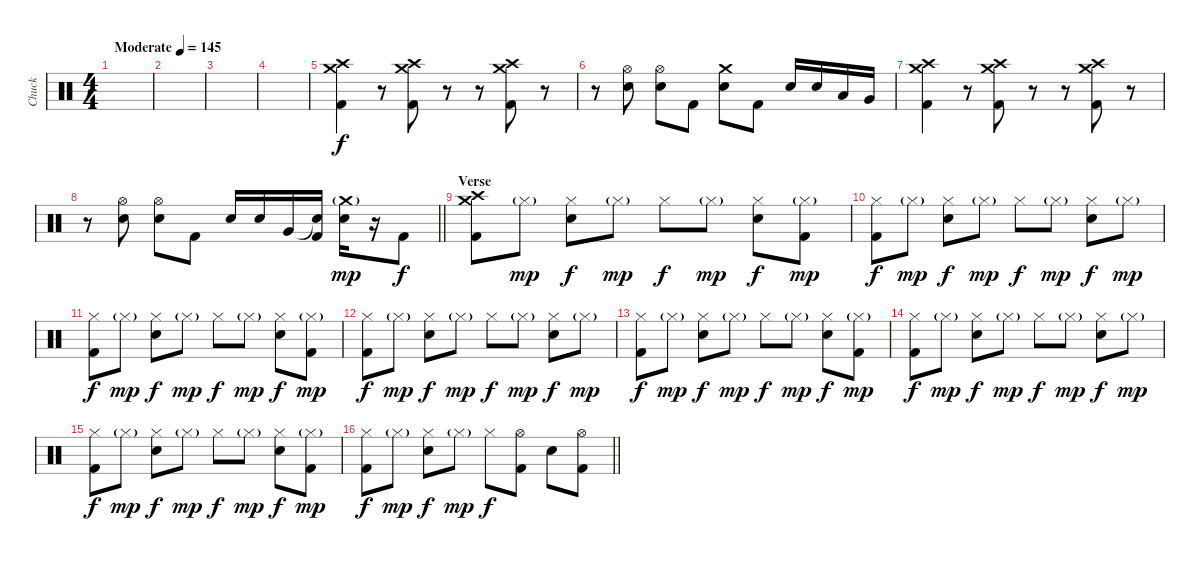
\track ("Chuck" "Chuck") {instrument percussion}
\staff {score}
\articulation defaults
\ts (4 4)
\tempo (145 "Moderate")
\clef neutral
\ks c
|
|
|
|
("Crash medium (hit)" "Crash high (hit)" "Kick (hit) 2").4 r.8 ("Crash medium (hit)" "Crash high (hit)" "Kick (hit) 2").8 r.8 r.8 ("Crash medium (hit)" "Crash high (hit)" "Kick (hit) 2").8 r.8 |
r.8 ("Hi-Hat (open)" "Snare (hit) 2").8 ("Hi-Hat (open)" "Snare (hit) 2").8 "Kick (hit) 2".8 ("Crash medium (hit)" "Snare (hit) 2").8 "Kick (hit) 2".8 "Snare (hit) 2".16 "Snare (hit) 2".16 "Low Tom (hit)".16 "Very Low Tom (hit)".16 |
("Crash medium (hit)" "Crash high (hit)" "Kick (hit) 2").4 r.8 ("Crash medium (hit)" "Crash high (hit)" "Kick (hit) 2").8 r.8 r.8 ("Crash medium (hit)" "Crash high (hit)" "Kick (hit) 2").8 r.8 |
\barLineRight lightlight
r.8 ("Hi-Hat (open)" "Snare (hit) 2").8 ("Hi-Hat (open)" "Snare (hit) 2").8 "Kick (hit) 2".8 "Snare (hit) 2".16 "Snare (hit) 2".16 "Very Low Tom (hit)".16 ("Snare (hit)"{t} "Kick (hit) 2").16 ("Crash medium (hit)"{g} "Snare (hit) 2").16{dy mp} r.16 "Kick (hit) 2".8{dy f} |
\section ("" "Verse")
("Crash medium (hit)" "Crash high (hit)" "Kick (hit) 2").8 "Hi-Hat (closed)"{g}.8{dy mp} ("Hi-Hat (closed)" "Snare (hit) 2").8{dy f} "Hi-Hat (closed)"{g}.8{dy mp} "Hi-Hat (closed)".8{dy f} "Hi-Hat (closed)"{g}.8{dy mp} ("Hi-Hat (closed)" "Snare (hit) 2").8{dy f} ("Hi-Hat (closed)"{g} "Kick (hit) 2").8{dy mp} |
("Hi-Hat (closed)" "Kick (hit) 2").8{dy f} "Hi-Hat (closed)"{g}.8{dy mp} ("Hi-Hat (closed)" "Snare (hit) 2").8{dy f} "Hi-Hat (closed)"{g}.8{dy mp} "Hi-Hat (closed)".8{dy f} "Hi-Hat (closed)"{g}.8{dy mp} ("Hi-Hat (closed)" "Snare (hit) 2").8{dy f} "Hi-Hat (closed)"{g}.8{dy mp} |
("Hi-Hat (closed)" "Kick (hit) 2").8{dy f} "Hi-Hat (closed)"{g}.8{dy mp} ("Hi-Hat (closed)" "Snare (hit) 2").8{dy f} "Hi-Hat (closed)"{g}.8{dy mp} "Hi-Hat (closed)".8{dy f} "Hi-Hat (closed)"{g}.8{dy mp} ("Hi-Hat (closed)" "Snare (hit) 2").8{dy f} ("Hi-Hat (closed)"{g} "Kick (hit) 2").8{dy mp} |
("Hi-Hat (closed)" "Kick (hit) 2").8{dy f} "Hi-Hat (closed)"{g}.8{dy mp} ("Hi-Hat (closed)" "Snare (hit) 2").8{dy f} "Hi-Hat (closed)"{g}.8{dy mp} "Hi-Hat (closed)".8{dy f} "Hi-Hat (closed)"{g}.8{dy mp} ("Hi-Hat (closed)" "Snare (hit) 2").8{dy f} "Hi-Hat (closed)"{g}.8{dy mp} |
("Hi-Hat (closed)" "Kick (hit) 2").8{dy f} "Hi-Hat (closed)"{g}.8{dy mp} ("Hi-Hat (closed)" "Snare (hit) 2").8{dy f} "Hi-Hat (closed)"{g}.8{dy mp} "Hi-Hat (closed)".8{dy f} "Hi-Hat (closed)"{g}.8{dy mp} ("Hi-Hat (closed)" "Snare (hit) 2").8{dy f} ("Hi-Hat (closed)"{g} "Kick (hit) 2").8{dy mp} |
("Hi-Hat (closed)" "Kick (hit) 2").8{dy f} "Hi-Hat (closed)"{g}.8{dy mp} ("Hi-Hat (closed)" "Snare (hit) 2").8{dy f} "Hi-Hat (closed)"{g}.8{dy mp} "Hi-Hat (closed)".8{dy f} "Hi-Hat (closed)"{g}.8{dy mp} ("Hi-Hat (closed)" "Snare (hit) 2").8{dy f} "Hi-Hat (closed)"{g}.8{dy mp} |
("Hi-Hat (closed)" "Kick (hit) 2").8{dy f} "Hi-Hat (closed)"{g}.8{dy mp} ("Hi-Hat (closed)" "Snare (hit) 2").8{dy f} "Hi-Hat (closed)"{g}.8{dy mp} "Hi-Hat (closed)".8{dy f} "Hi-Hat (closed)"{g}.8{dy mp} ("Hi-Hat (closed)" "Snare (hit) 2").8{dy f} ("Hi-Hat (closed)"{g} "Kick (hit) 2").8{dy mp} |
\barLineRight lightlight
("Hi-Hat (closed)" "Kick (hit) 2").8{dy f} "Hi-Hat (closed)"{g}.8{dy mp} ("Hi-Hat (closed)" "Snare (hit) 2").8{dy f} "Hi-Hat (closed)"{g}.8{dy mp} "Hi-Hat (closed)".8{dy f} ("Hi-Hat (open)" "Kick (hit) 2").8 "Snare (hit) 2".8 ("Hi-Hat (open)" "Kick (hit) 2").8
